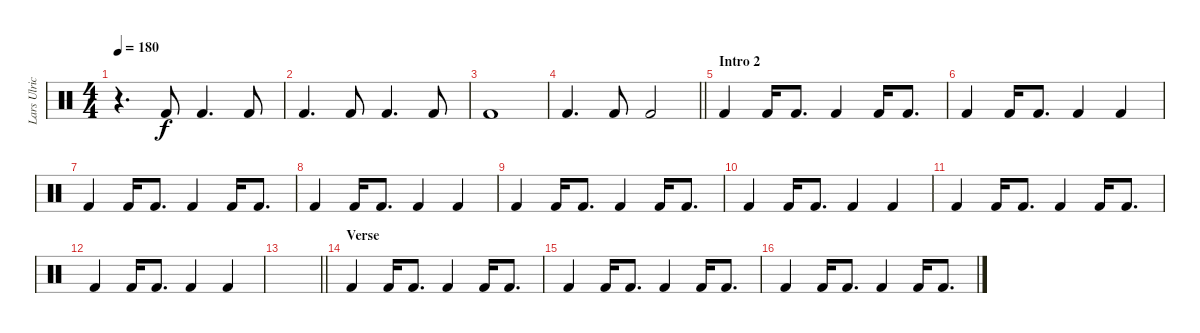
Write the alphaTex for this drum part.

\track ("Lars Ulrich" "Lars Ulric") {instrument percussion}
\staff {score}
\articulation defaults
\ts (4 4)
\tempo 180
\clef neutral
\ks c
r.4{d dy f} "Kick (hit) 2".8 "Kick (hit) 2".4{d} "Kick (hit) 2".8 |
"Kick (hit) 2".4{d} "Kick (hit) 2".8 "Kick (hit) 2".4{d} "Kick (hit) 2".8 |
"Kick (hit) 2".1 |
\barLineRight lightlight "Kick (hit) 2".4{d} "Kick (hit) 2".8 "Kick (hit) 2".2
|
\section ("" "Intro 2")
"Kick (hit) 2".4 "Kick (hit) 2".16 "Kick (hit) 2".8{d} "Kick (hit) 2".4 "Kick (hit) 2".16 "Kick (hit) 2".8{d} |
"Kick (hit) 2".4 "Kick (hit) 2".16 "Kick (hit) 2".8{d} "Kick (hit) 2".4 "Kick (hit) 2".4 |
"Kick (hit) 2".4 "Kick (hit) 2".16 "Kick (hit) 2".8{d} "Kick (hit) 2".4 "Kick (hit) 2".16 "Kick (hit) 2".8{d} |
"Kick (hit) 2".4 "Kick (hit) 2".16 "Kick (hit) 2".8{d} "Kick (hit) 2".4 "Kick (hit) 2".4 |
"Kick (hit) 2".4 "Kick (hit) 2".16 "Kick (hit) 2".8{d} "Kick (hit) 2".4 "Kick (hit) 2".16 "Kick (hit) 2".8{d} |
"Kick (hit) 2".4 "Kick (hit) 2".16 "Kick (hit) 2".8{d} "Kick (hit) 2".4 "Kick (hit) 2".4 |
"Kick (hit) 2".4 "Kick (hit) 2".16 "Kick (hit) 2".8{d} "Kick (hit) 2".4 "Kick (hit) 2".16 "Kick (hit) 2".8{d} |
"Kick (hit) 2".4 "Kick (hit) 2".16 "Kick (hit) 2".8{d} "Kick (hit) 2".4 "Kick (hit) 2".4 |
\barLineRight lightlight
|
\section ("" "Verse")
"Kick (hit) 2".4 "Kick (hit) 2".16 "Kick (hit) 2".8{d} "Kick (hit) 2".4 "Kick (hit) 2".16 "Kick (hit) 2".8{d} |
"Kick (hit) 2".4 "Kick (hit) 2".16 "Kick (hit) 2".8{d} "Kick (hit) 2".4 "Kick (hit) 2".16 "Kick (hit) 2".8{d} |
"Kick (hit) 2".4 "Kick (hit) 2".16 "Kick (hit) 2".8{d} "Kick (hit) 2".4 "Kick (hit) 2".16 "Kick (hit) 2".8{d}
